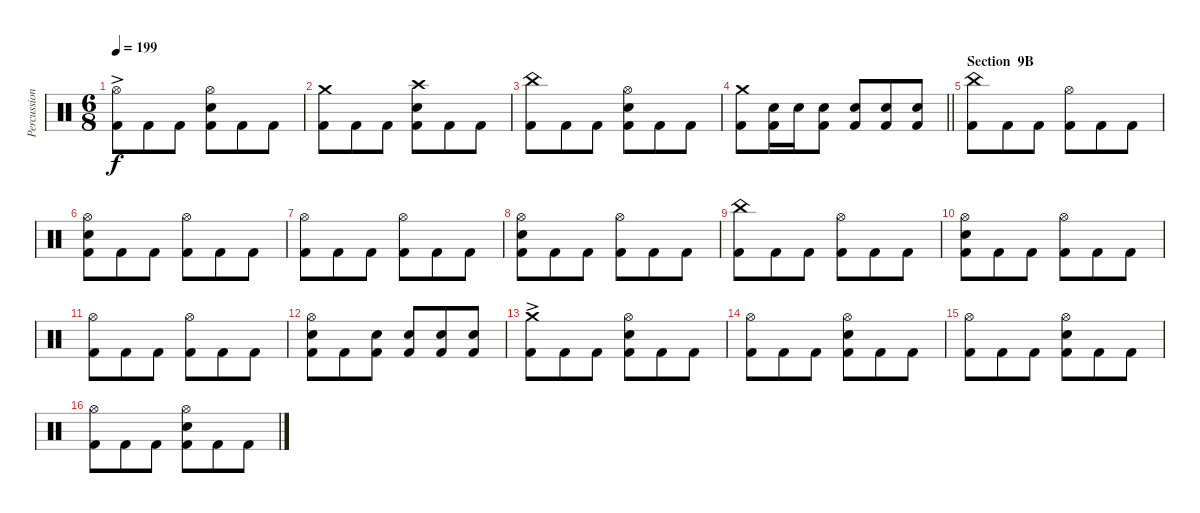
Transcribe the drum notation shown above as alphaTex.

\track ("Percussion" "Percussion") {instrument percussion}
\staff {score}
\articulation defaults
\ts (6 8)
\tempo 199
\clef neutral
\ks c
("Hi-Hat (open)"{ac} "Kick (hit) 2").8{dy f} "Kick (hit) 2".8 "Kick (hit) 2".8 ("Hi-Hat (open)" "Electric Snare (hit)" "Kick (hit) 2").8 "Kick (hit) 2".8 "Kick (hit) 2".8 |
("Crash medium (hit)" "Kick (hit) 2").8 "Kick (hit) 2".8 "Kick (hit) 2".8 ("Crash high (hit)" "Electric Snare (hit)" "Kick (hit) 2").8 "Kick (hit) 2".8 "Kick (hit) 2".8 |
("China (hit)" "Kick (hit) 2").8 "Kick (hit) 2".8 "Kick (hit) 2".8 ("Hi-Hat (open)" "Electric Snare (hit)" "Kick (hit) 2").8 "Kick (hit) 2".8 "Kick (hit) 2".8 |
\barLineRight lightlight
("Crash medium (hit)" "Kick (hit) 2").8 ("Electric Snare (hit)" "Kick (hit) 2").16 "Electric Snare (hit)".16 ("Electric Snare (hit)" "Kick (hit) 2").8 ("Electric Snare (hit)" "Kick (hit) 2").8 ("Electric Snare (hit)" "Kick (hit) 2").8 ("Electric Snare (hit)" "Kick (hit) 2").8 |
\section ("" "Section  9B")
("China (hit)" "Kick (hit) 2").8 "Kick (hit) 2".8 "Kick (hit) 2".8 ("Hi-Hat (open)" "Kick (hit) 2").8 "Kick (hit) 2".8 "Kick (hit) 2".8 |
("Hi-Hat (open)" "Electric Snare (hit)" "Kick (hit) 2").8 "Kick (hit) 2".8 "Kick (hit) 2".8 ("Hi-Hat (open)" "Kick (hit) 2").8 "Kick (hit) 2".8 "Kick (hit) 2".8 |
("Hi-Hat (open)" "Kick (hit) 2").8 "Kick (hit) 2".8 "Kick (hit) 2".8 ("Hi-Hat (open)" "Kick (hit) 2").8 "Kick (hit) 2".8 "Kick (hit) 2".8 |
("Hi-Hat (open)" "Electric Snare (hit)" "Kick (hit) 2").8 "Kick (hit) 2".8 "Kick (hit) 2".8 ("Hi-Hat (open)" "Kick (hit) 2").8 "Kick (hit) 2".8 "Kick (hit) 2".8 |
("China (hit)" "Kick (hit) 2").8 "Kick (hit) 2".8 "Kick (hit) 2".8 ("Hi-Hat (open)" "Kick (hit) 2").8 "Kick (hit) 2".8 "Kick (hit) 2".8 |
("Hi-Hat (open)" "Electric Snare (hit)" "Kick (hit) 2").8 "Kick (hit) 2".8 "Kick (hit) 2".8 ("Hi-Hat (open)" "Kick (hit) 2").8 "Kick (hit) 2".8 "Kick (hit) 2".8 |
("Hi-Hat (open)" "Kick (hit) 2").8 "Kick (hit) 2".8 "Kick (hit) 2".8 ("Hi-Hat (open)" "Kick (hit) 2").8 "Kick (hit) 2".8 "Kick (hit) 2".8 |
("Hi-Hat (open)" "Electric Snare (hit)" "Kick (hit) 2").8 "Kick (hit) 2".8 ("Electric Snare (hit)" "Kick (hit) 2").8 ("Electric Snare (hit)" "Kick (hit) 2").8 ("Electric Snare (hit)" "Kick (hit) 2").8 ("Electric Snare (hit)" "Kick (hit) 2").8 |
("Crash medium (hit)"{ac} "Kick (hit) 2").8 "Kick (hit) 2".8 "Kick (hit) 2".8 ("Hi-Hat (open)" "Electric Snare (hit)" "Kick (hit) 2").8 "Kick (hit) 2".8 "Kick (hit) 2".8 |
("Hi-Hat (open)" "Kick (hit) 2").8 "Kick (hit) 2".8 "Kick (hit) 2".8 ("Hi-Hat (open)" "Electric Snare (hit)" "Kick (hit) 2").8 "Kick (hit) 2".8 "Kick (hit) 2".8 |
("Hi-Hat (open)" "Kick (hit) 2").8 "Kick (hit) 2".8 "Kick (hit) 2".8 ("Hi-Hat (open)" "Electric Snare (hit)" "Kick (hit) 2").8 "Kick (hit) 2".8 "Kick (hit) 2".8 |
("Hi-Hat (open)" "Kick (hit) 2").8 "Kick (hit) 2".8 "Kick (hit) 2".8 ("Hi-Hat (open)" "Electric Snare (hit)" "Kick (hit) 2").8 "Kick (hit) 2".8 "Kick (hit) 2".8
